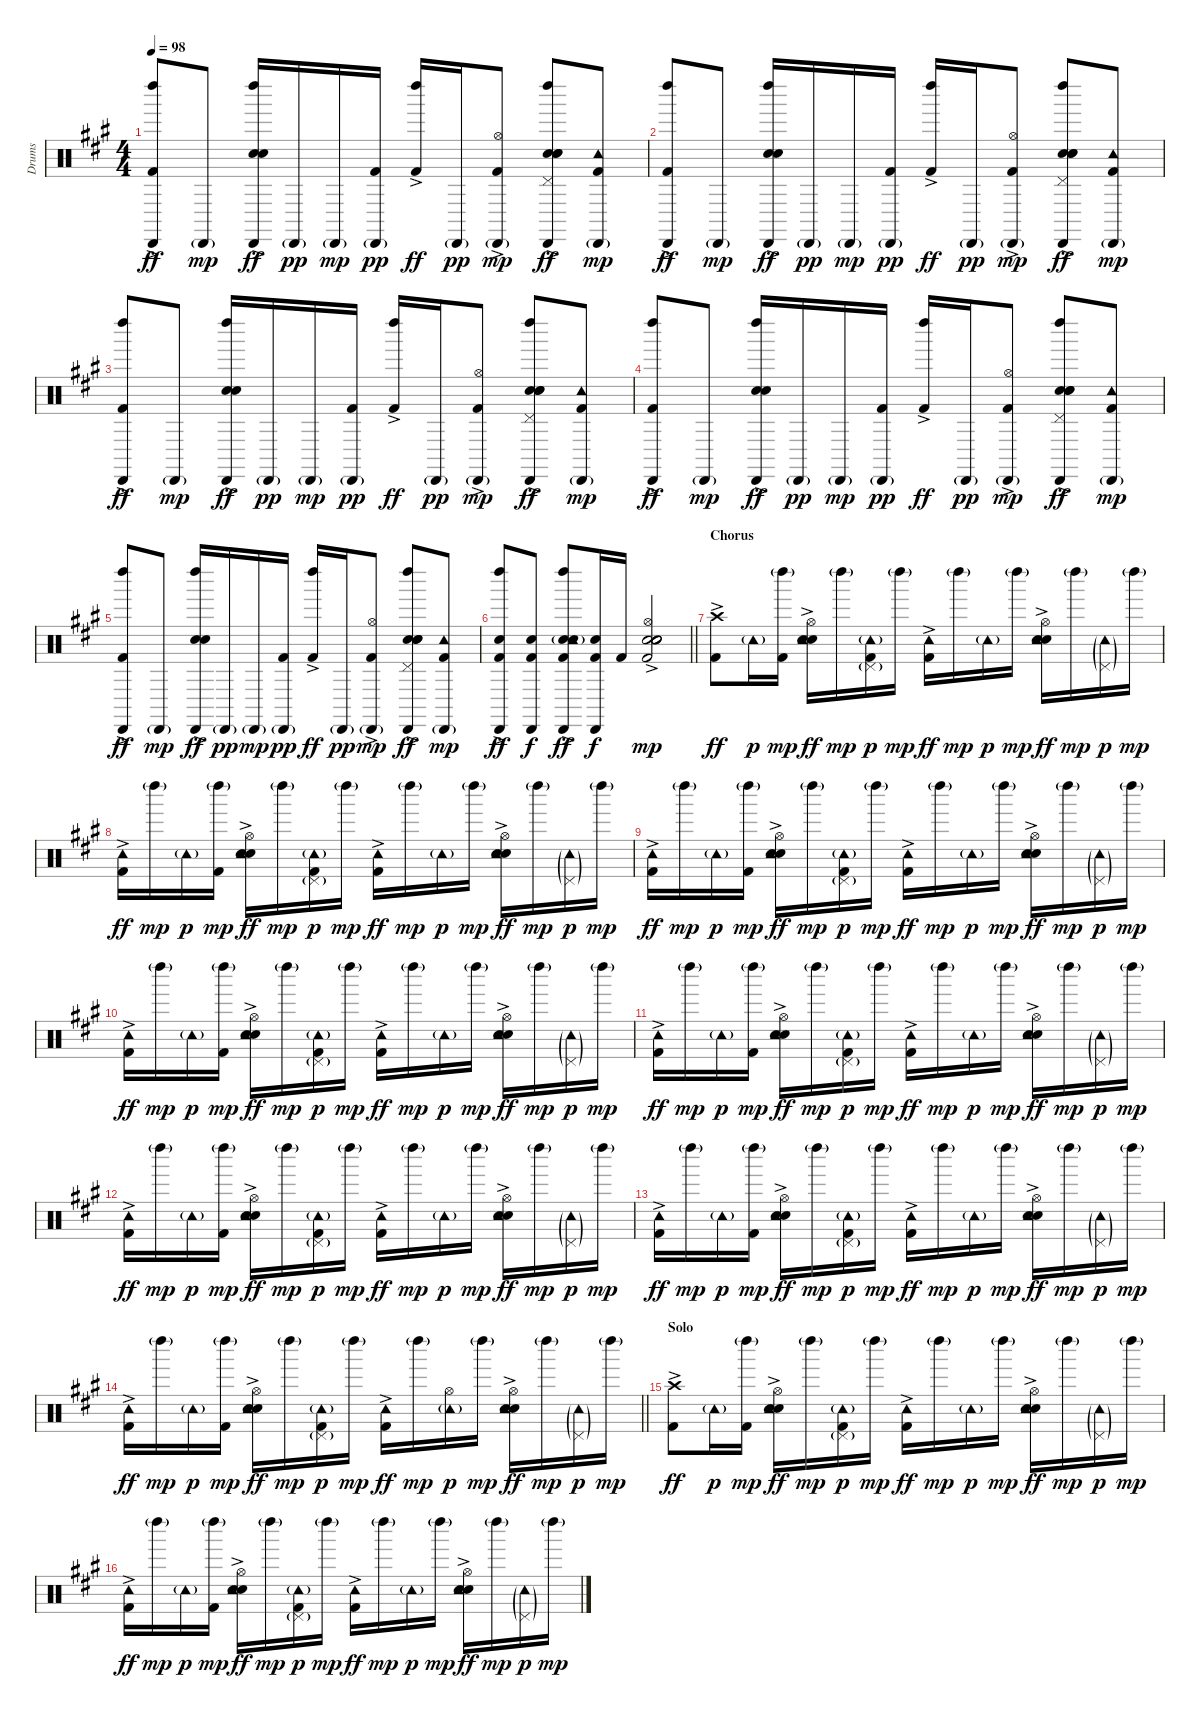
\track ("Drums" "Drums") {instrument percussion}
\staff {score}
\articulation defaults
\ts (4 4)
\tempo 98
\clef neutral
\ks a
("Kick (hit) 2"{ac} "Cabasa (hit)" "Left Maraca (hit)"{ac}).8{dy ff} "Cabasa (hit)"{g}.8{dy mp} ("Snare (hit) 2" "Electric Snare (hit)"{ac} "Cabasa (hit)" "Left Maraca (hit)"{ac}).16{dy ff} "Cabasa (hit)"{g}.16{dy pp} "Cabasa (hit)"{g}.16{dy mp} ("Kick (hit) 2" "Cabasa (hit)"{g}).16{dy pp} ("Kick (hit) 2"{ac} "Left Maraca (hit)"{ac}).16{dy ff} "Cabasa (hit)"{g}.16{dy pp} ("Kick (hit) 2"{ac} "Hi-Hat (open)" "Cabasa (hit)"{g}).8{dy mp} ("Snare (hit) 2" "Electric Snare (hit)"{ac} "Pedal Hi-Hat (hit)" "Hand Clap (hit)"{ac} "Cabasa (hit)" "Left Maraca (hit)"{ac}).8{dy ff} ("Kick (hit) 2" "Tambourine (hit)" "Cabasa (hit)"{g}).8{dy mp} |
("Kick (hit) 2"{ac} "Cabasa (hit)" "Left Maraca (hit)"{ac}).8{dy ff} "Cabasa (hit)"{g}.8{dy mp} ("Snare (hit) 2" "Electric Snare (hit)"{ac} "Cabasa (hit)" "Left Maraca (hit)"{ac}).16{dy ff} "Cabasa (hit)"{g}.16{dy pp} "Cabasa (hit)"{g}.16{dy mp} ("Kick (hit) 2" "Cabasa (hit)"{g}).16{dy pp} ("Kick (hit) 2"{ac} "Left Maraca (hit)"{ac}).16{dy ff} "Cabasa (hit)"{g}.16{dy pp} ("Kick (hit) 2"{ac} "Hi-Hat (open)" "Cabasa (hit)"{g}).8{dy mp} ("Snare (hit) 2" "Electric Snare (hit)"{ac} "Pedal Hi-Hat (hit)" "Hand Clap (hit)"{ac} "Cabasa (hit)" "Left Maraca (hit)"{ac}).8{dy ff} ("Kick (hit) 2" "Tambourine (hit)" "Cabasa (hit)"{g}).8{dy mp} |
("Kick (hit) 2"{ac} "Cabasa (hit)" "Left Maraca (hit)"{ac}).8{dy ff} "Cabasa (hit)"{g}.8{dy mp} ("Snare (hit) 2" "Electric Snare (hit)"{ac} "Cabasa (hit)" "Left Maraca (hit)"{ac}).16{dy ff} "Cabasa (hit)"{g}.16{dy pp} "Cabasa (hit)"{g}.16{dy mp} ("Kick (hit) 2" "Cabasa (hit)"{g}).16{dy pp} ("Kick (hit) 2"{ac} "Left Maraca (hit)"{ac}).16{dy ff} "Cabasa (hit)"{g}.16{dy pp} ("Kick (hit) 2"{ac} "Hi-Hat (open)" "Cabasa (hit)"{g}).8{dy mp} ("Snare (hit) 2" "Electric Snare (hit)"{ac} "Pedal Hi-Hat (hit)" "Hand Clap (hit)"{ac} "Cabasa (hit)" "Left Maraca (hit)"{ac}).8{dy ff} ("Kick (hit) 2" "Tambourine (hit)" "Cabasa (hit)"{g}).8{dy mp} |
("Kick (hit) 2"{ac} "Cabasa (hit)" "Left Maraca (hit)"{ac}).8{dy ff} "Cabasa (hit)"{g}.8{dy mp} ("Snare (hit) 2" "Electric Snare (hit)"{ac} "Cabasa (hit)" "Left Maraca (hit)"{ac}).16{dy ff} "Cabasa (hit)"{g}.16{dy pp} "Cabasa (hit)"{g}.16{dy mp} ("Kick (hit) 2" "Cabasa (hit)"{g}).16{dy pp} ("Kick (hit) 2"{ac} "Left Maraca (hit)"{ac}).16{dy ff} "Cabasa (hit)"{g}.16{dy pp} ("Kick (hit) 2"{ac} "Hi-Hat (open)" "Cabasa (hit)"{g}).8{dy mp} ("Snare (hit) 2" "Electric Snare (hit)"{ac} "Pedal Hi-Hat (hit)" "Hand Clap (hit)"{ac} "Cabasa (hit)" "Left Maraca (hit)"{ac}).8{dy ff} ("Kick (hit) 2" "Tambourine (hit)" "Cabasa (hit)"{g}).8{dy mp} |
("Kick (hit) 2"{ac} "Cabasa (hit)" "Left Maraca (hit)"{ac}).8{dy ff} "Cabasa (hit)"{g}.8{dy mp} ("Snare (hit) 2" "Electric Snare (hit)"{ac} "Cabasa (hit)" "Left Maraca (hit)"{ac}).16{dy ff} "Cabasa (hit)"{g}.16{dy pp} "Cabasa (hit)"{g}.16{dy mp} ("Kick (hit) 2" "Cabasa (hit)"{g}).16{dy pp} ("Kick (hit) 2"{ac} "Left Maraca (hit)"{ac}).16{dy ff} "Cabasa (hit)"{g}.16{dy pp} ("Kick (hit) 2"{ac} "Hi-Hat (open)" "Cabasa (hit)"{g}).8{dy mp} ("Snare (hit) 2" "Electric Snare (hit)"{ac} "Pedal Hi-Hat (hit)" "Hand Clap (hit)"{ac} "Cabasa (hit)" "Left Maraca (hit)"{ac}).8{dy ff} ("Kick (hit) 2" "Tambourine (hit)" "Cabasa (hit)"{g}).8{dy mp} |
\barLineRight lightlight
("Kick (hit) 2"{ac} "Snare (hit) 2" "Cabasa (hit)" "Left Maraca (hit)").8{dy ff} ("Kick (hit) 2" "Snare (hit) 2" "Cabasa (hit)").8{dy f} ("Kick (hit) 2"{ac} "Snare (hit) 2"{ac} "Electric Snare (hit)" "Tambourine (hit)"{g} "Cabasa (hit)" "Left Maraca (hit)").8{dy ff} ("Kick (hit) 2" "Snare (hit) 2" "Cabasa (hit)").16{dy f} "Kick (hit) 2".16 ("Kick (hit) 2"{ac} "Snare (hit) 2"{ac} "Electric Snare (hit)" "Hand Clap (hit)" "Electric Snare (hit)" "Hi-Hat (open)").2{dy mp} |
\section ("" "Chorus")
("Kick (hit) 2"{ac} "Crash high (hit)").8{dy ff} "Tambourine (hit)"{g}.16{dy p} ("Kick (hit) 2" "Left Maraca (hit)"{g}).16{dy mp} ("Snare (hit) 2"{ac} "Electric Snare (hit)" "Hi-Hat (open)" "Tambourine (hit)").16{dy ff} "Left Maraca (hit)"{g}.16{dy mp} ("Kick (hit) 2" "Pedal Hi-Hat (hit)"{g} "Tambourine (hit)"{g}).16{dy p} "Left Maraca (hit)"{g}.16{dy mp} ("Kick (hit) 2"{ac} "Tambourine (hit)").16{dy ff} "Left Maraca (hit)"{g}.16{dy mp} "Tambourine (hit)"{g}.16{dy p} "Left Maraca (hit)"{g}.16{dy mp} ("Snare (hit) 2"{ac} "Electric Snare (hit)" "Hi-Hat (open)" "Tambourine (hit)").16{dy ff} "Left Maraca (hit)"{g}.16{dy mp} ("Pedal Hi-Hat (hit)"{g} "Tambourine (hit)"{g}).16{dy p} "Left Maraca (hit)"{g}.16{dy mp} |
("Kick (hit) 2"{ac} "Tambourine (hit)").16{dy ff} "Left Maraca (hit)"{g}.16{dy mp} "Tambourine (hit)"{g}.16{dy p} ("Kick (hit) 2" "Left Maraca (hit)"{g}).16{dy mp} ("Snare (hit) 2"{ac} "Electric Snare (hit)" "Hi-Hat (open)" "Tambourine (hit)").16{dy ff} "Left Maraca (hit)"{g}.16{dy mp} ("Kick (hit) 2" "Pedal Hi-Hat (hit)"{g} "Tambourine (hit)"{g}).16{dy p} "Left Maraca (hit)"{g}.16{dy mp} ("Kick (hit) 2"{ac} "Tambourine (hit)").16{dy ff} "Left Maraca (hit)"{g}.16{dy mp} "Tambourine (hit)"{g}.16{dy p} "Left Maraca (hit)"{g}.16{dy mp} ("Snare (hit) 2"{ac} "Electric Snare (hit)" "Hi-Hat (open)" "Tambourine (hit)").16{dy ff} "Left Maraca (hit)"{g}.16{dy mp} ("Pedal Hi-Hat (hit)"{g} "Tambourine (hit)"{g}).16{dy p} "Left Maraca (hit)"{g}.16{dy mp} |
("Kick (hit) 2"{ac} "Tambourine (hit)").16{dy ff} "Left Maraca (hit)"{g}.16{dy mp} "Tambourine (hit)"{g}.16{dy p} ("Kick (hit) 2" "Left Maraca (hit)"{g}).16{dy mp} ("Snare (hit) 2"{ac} "Electric Snare (hit)" "Hi-Hat (open)" "Tambourine (hit)").16{dy ff} "Left Maraca (hit)"{g}.16{dy mp} ("Kick (hit) 2" "Pedal Hi-Hat (hit)"{g} "Tambourine (hit)"{g}).16{dy p} "Left Maraca (hit)"{g}.16{dy mp} ("Kick (hit) 2"{ac} "Tambourine (hit)").16{dy ff} "Left Maraca (hit)"{g}.16{dy mp} "Tambourine (hit)"{g}.16{dy p} "Left Maraca (hit)"{g}.16{dy mp} ("Snare (hit) 2"{ac} "Electric Snare (hit)" "Hi-Hat (open)" "Tambourine (hit)").16{dy ff} "Left Maraca (hit)"{g}.16{dy mp} ("Pedal Hi-Hat (hit)"{g} "Tambourine (hit)"{g}).16{dy p} "Left Maraca (hit)"{g}.16{dy mp} |
("Kick (hit) 2"{ac} "Tambourine (hit)").16{dy ff} "Left Maraca (hit)"{g}.16{dy mp} "Tambourine (hit)"{g}.16{dy p} ("Kick (hit) 2" "Left Maraca (hit)"{g}).16{dy mp} ("Snare (hit) 2"{ac} "Electric Snare (hit)" "Hi-Hat (open)" "Tambourine (hit)").16{dy ff} "Left Maraca (hit)"{g}.16{dy mp} ("Kick (hit) 2" "Pedal Hi-Hat (hit)"{g} "Tambourine (hit)"{g}).16{dy p} "Left Maraca (hit)"{g}.16{dy mp} ("Kick (hit) 2"{ac} "Tambourine (hit)").16{dy ff} "Left Maraca (hit)"{g}.16{dy mp} "Tambourine (hit)"{g}.16{dy p} "Left Maraca (hit)"{g}.16{dy mp} ("Snare (hit) 2"{ac} "Electric Snare (hit)" "Hi-Hat (open)" "Tambourine (hit)").16{dy ff} "Left Maraca (hit)"{g}.16{dy mp} ("Pedal Hi-Hat (hit)"{g} "Tambourine (hit)"{g}).16{dy p} "Left Maraca (hit)"{g}.16{dy mp} |
("Kick (hit) 2"{ac} "Tambourine (hit)").16{dy ff} "Left Maraca (hit)"{g}.16{dy mp} "Tambourine (hit)"{g}.16{dy p} ("Kick (hit) 2" "Left Maraca (hit)"{g}).16{dy mp} ("Snare (hit) 2"{ac} "Electric Snare (hit)" "Hi-Hat (open)" "Tambourine (hit)").16{dy ff} "Left Maraca (hit)"{g}.16{dy mp} ("Kick (hit) 2" "Pedal Hi-Hat (hit)"{g} "Tambourine (hit)"{g}).16{dy p} "Left Maraca (hit)"{g}.16{dy mp} ("Kick (hit) 2"{ac} "Tambourine (hit)").16{dy ff} "Left Maraca (hit)"{g}.16{dy mp} "Tambourine (hit)"{g}.16{dy p} "Left Maraca (hit)"{g}.16{dy mp} ("Snare (hit) 2"{ac} "Electric Snare (hit)" "Hi-Hat (open)" "Tambourine (hit)").16{dy ff} "Left Maraca (hit)"{g}.16{dy mp} ("Pedal Hi-Hat (hit)"{g} "Tambourine (hit)"{g}).16{dy p} "Left Maraca (hit)"{g}.16{dy mp} |
("Kick (hit) 2"{ac} "Tambourine (hit)").16{dy ff} "Left Maraca (hit)"{g}.16{dy mp} "Tambourine (hit)"{g}.16{dy p} ("Kick (hit) 2" "Left Maraca (hit)"{g}).16{dy mp} ("Snare (hit) 2"{ac} "Electric Snare (hit)" "Hi-Hat (open)" "Tambourine (hit)").16{dy ff} "Left Maraca (hit)"{g}.16{dy mp} ("Kick (hit) 2" "Pedal Hi-Hat (hit)"{g} "Tambourine (hit)"{g}).16{dy p} "Left Maraca (hit)"{g}.16{dy mp} ("Kick (hit) 2"{ac} "Tambourine (hit)").16{dy ff} "Left Maraca (hit)"{g}.16{dy mp} "Tambourine (hit)"{g}.16{dy p} "Left Maraca (hit)"{g}.16{dy mp} ("Snare (hit) 2"{ac} "Electric Snare (hit)" "Hi-Hat (open)" "Tambourine (hit)").16{dy ff} "Left Maraca (hit)"{g}.16{dy mp} ("Pedal Hi-Hat (hit)"{g} "Tambourine (hit)"{g}).16{dy p} "Left Maraca (hit)"{g}.16{dy mp} |
("Kick (hit) 2"{ac} "Tambourine (hit)").16{dy ff} "Left Maraca (hit)"{g}.16{dy mp} "Tambourine (hit)"{g}.16{dy p} ("Kick (hit) 2" "Left Maraca (hit)"{g}).16{dy mp} ("Snare (hit) 2"{ac} "Electric Snare (hit)" "Hi-Hat (open)" "Tambourine (hit)").16{dy ff} "Left Maraca (hit)"{g}.16{dy mp} ("Kick (hit) 2" "Pedal Hi-Hat (hit)"{g} "Tambourine (hit)"{g}).16{dy p} "Left Maraca (hit)"{g}.16{dy mp} ("Kick (hit) 2"{ac} "Tambourine (hit)").16{dy ff} "Left Maraca (hit)"{g}.16{dy mp} "Tambourine (hit)"{g}.16{dy p} "Left Maraca (hit)"{g}.16{dy mp} ("Snare (hit) 2"{ac} "Electric Snare (hit)" "Hi-Hat (open)" "Tambourine (hit)").16{dy ff} "Left Maraca (hit)"{g}.16{dy mp} ("Pedal Hi-Hat (hit)"{g} "Tambourine (hit)"{g}).16{dy p} "Left Maraca (hit)"{g}.16{dy mp} |
\barLineRight lightlight
("Kick (hit) 2"{ac} "Tambourine (hit)").16{dy ff} "Left Maraca (hit)"{g}.16{dy mp} "Tambourine (hit)"{g}.16{dy p} ("Kick (hit) 2" "Left Maraca (hit)"{g}).16{dy mp} ("Snare (hit) 2"{ac} "Electric Snare (hit)" "Hi-Hat (open)" "Tambourine (hit)").16{dy ff} "Left Maraca (hit)"{g}.16{dy mp} ("Kick (hit) 2" "Pedal Hi-Hat (hit)"{g} "Tambourine (hit)"{g}).16{dy p} "Left Maraca (hit)"{g}.16{dy mp} ("Kick (hit) 2"{ac} "Tambourine (hit)").16{dy ff} "Left Maraca (hit)"{g}.16{dy mp} ("Hi-Hat (open)" "Tambourine (hit)"{g}).16{dy p} "Left Maraca (hit)"{g}.16{dy mp} ("Snare (hit) 2"{ac} "Electric Snare (hit)" "Hi-Hat (open)" "Tambourine (hit)").16{dy ff} "Left Maraca (hit)"{g}.16{dy mp} ("Pedal Hi-Hat (hit)"{g} "Tambourine (hit)"{g}).16{dy p} "Left Maraca (hit)"{g}.16{dy mp} |
\section ("" "Solo")
("Kick (hit) 2"{ac} "Crash high (hit)").8{dy ff} "Tambourine (hit)"{g}.16{dy p} ("Kick (hit) 2" "Left Maraca (hit)"{g}).16{dy mp} ("Snare (hit) 2"{ac} "Electric Snare (hit)" "Hi-Hat (open)" "Tambourine (hit)").16{dy ff} "Left Maraca (hit)"{g}.16{dy mp} ("Kick (hit) 2" "Pedal Hi-Hat (hit)"{g} "Tambourine (hit)"{g}).16{dy p} "Left Maraca (hit)"{g}.16{dy mp} ("Kick (hit) 2"{ac} "Tambourine (hit)").16{dy ff} "Left Maraca (hit)"{g}.16{dy mp} "Tambourine (hit)"{g}.16{dy p} "Left Maraca (hit)"{g}.16{dy mp} ("Snare (hit) 2"{ac} "Electric Snare (hit)" "Hi-Hat (open)" "Tambourine (hit)").16{dy ff} "Left Maraca (hit)"{g}.16{dy mp} ("Pedal Hi-Hat (hit)"{g} "Tambourine (hit)"{g}).16{dy p} "Left Maraca (hit)"{g}.16{dy mp} |
("Kick (hit) 2"{ac} "Tambourine (hit)").16{dy ff} "Left Maraca (hit)"{g}.16{dy mp} "Tambourine (hit)"{g}.16{dy p} ("Kick (hit) 2" "Left Maraca (hit)"{g}).16{dy mp} ("Snare (hit) 2"{ac} "Electric Snare (hit)" "Hi-Hat (open)" "Tambourine (hit)").16{dy ff} "Left Maraca (hit)"{g}.16{dy mp} ("Kick (hit) 2" "Pedal Hi-Hat (hit)"{g} "Tambourine (hit)"{g}).16{dy p} "Left Maraca (hit)"{g}.16{dy mp} ("Kick (hit) 2"{ac} "Tambourine (hit)").16{dy ff} "Left Maraca (hit)"{g}.16{dy mp} "Tambourine (hit)"{g}.16{dy p} "Left Maraca (hit)"{g}.16{dy mp} ("Snare (hit) 2"{ac} "Electric Snare (hit)" "Hi-Hat (open)" "Tambourine (hit)").16{dy ff} "Left Maraca (hit)"{g}.16{dy mp} ("Pedal Hi-Hat (hit)"{g} "Tambourine (hit)"{g}).16{dy p} "Left Maraca (hit)"{g}.16{dy mp}
